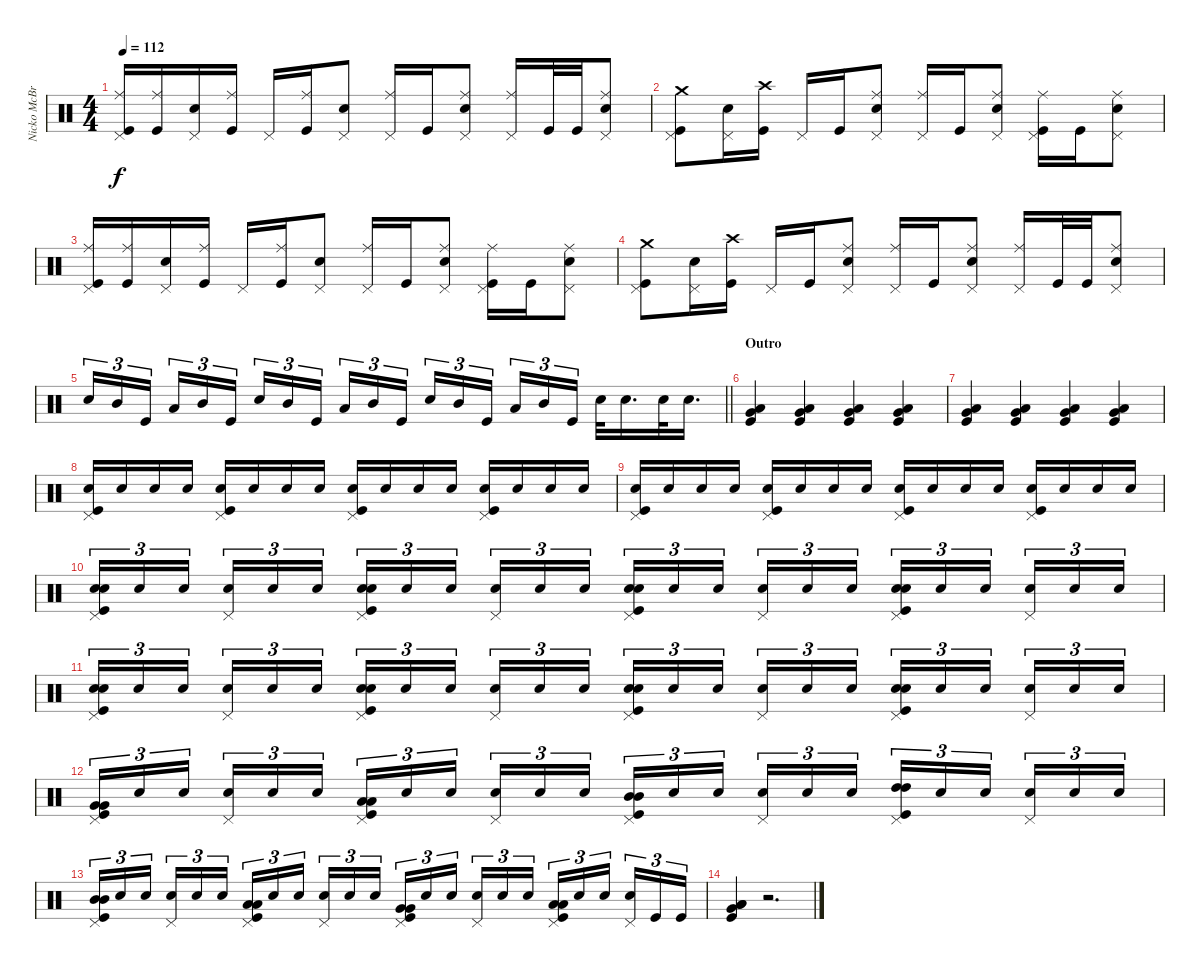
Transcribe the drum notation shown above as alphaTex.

\track ("Nicko McBrain" "Nicko McBr") {instrument percussion}
\staff {score}
\articulation defaults
\ts (4 4)
\tempo 112
\clef neutral
\ks c
("Ride (middle)" "Pedal Hi-Hat (hit)" "Kick (hit)").16{dy f} ("Ride (middle)" "Kick (hit)").16 ("Snare (hit) 2" "Pedal Hi-Hat (hit)").16 ("Ride (middle)" "Kick (hit)").16 "Pedal Hi-Hat (hit)".16 ("Ride (middle)" "Kick (hit)").16 ("Snare (hit) 2" "Pedal Hi-Hat (hit)").8 ("Ride (middle)" "Pedal Hi-Hat (hit)").16 "Kick (hit)".16 ("Ride (middle)" "Snare (hit) 2" "Pedal Hi-Hat (hit)").8 ("Ride (middle)" "Pedal Hi-Hat (hit)").16 "Kick (hit)".32 "Kick (hit)".32 ("Ride (middle)" "Snare (hit) 2" "Pedal Hi-Hat (hit)").8 |
("Crash medium (hit)" "Pedal Hi-Hat (hit)" "Kick (hit)").8 ("Snare (hit) 2" "Pedal Hi-Hat (hit)").16 ("Crash high (hit)" "Kick (hit)").16 "Pedal Hi-Hat (hit)".16 "Kick (hit)".16 ("Ride (middle)" "Snare (hit) 2" "Pedal Hi-Hat (hit)").8 ("Ride (middle)" "Pedal Hi-Hat (hit)").16 "Kick (hit)".16 ("Ride (middle)" "Snare (hit) 2" "Pedal Hi-Hat (hit)").8 ("Ride (middle)" "Pedal Hi-Hat (hit)" "Kick (hit)").16 "Kick (hit)".16 ("Ride (middle)" "Snare (hit) 2" "Pedal Hi-Hat (hit)").8 |
("Ride (middle)" "Pedal Hi-Hat (hit)" "Kick (hit)").16 ("Ride (middle)" "Kick (hit)").16 ("Snare (hit) 2" "Pedal Hi-Hat (hit)").16 ("Ride (middle)" "Kick (hit)").16 "Pedal Hi-Hat (hit)".16 ("Ride (middle)" "Kick (hit)").16 ("Snare (hit) 2" "Pedal Hi-Hat (hit)").8 ("Ride (middle)" "Pedal Hi-Hat (hit)").16 "Kick (hit)".16 ("Ride (middle)" "Snare (hit) 2" "Pedal Hi-Hat (hit)").8 ("Ride (middle)" "Pedal Hi-Hat (hit)" "Kick (hit)").16 "Kick (hit)".16 ("Ride (middle)" "Snare (hit) 2" "Pedal Hi-Hat (hit)").8 |
("Crash medium (hit)" "Pedal Hi-Hat (hit)" "Kick (hit)").8 ("Snare (hit) 2" "Pedal Hi-Hat (hit)").16 ("Crash high (hit)" "Kick (hit)").16 "Pedal Hi-Hat (hit)".16 "Kick (hit)".16 ("Ride (middle)" "Snare (hit) 2" "Pedal Hi-Hat (hit)").8 ("Ride (middle)" "Pedal Hi-Hat (hit)").16 "Kick (hit)".16 ("Ride (middle)" "Snare (hit) 2" "Pedal Hi-Hat (hit)").8 ("Ride (middle)" "Pedal Hi-Hat (hit)").16 "Kick (hit)".32 "Kick (hit)".32 ("Ride (middle)" "Snare (hit) 2" "Pedal Hi-Hat (hit)").8 |
\barLineRight lightlight "Snare (hit) 2".16{tu (3 2)} "Mid Tom (hit)".16{tu (3 2)} "Kick (hit)".16{tu (3 2) beam splitsecondary} "Low Tom (hit)".16{tu (3 2)} "Mid Tom (hit)".16{tu (3 2)} "Kick (hit)".16{tu (3 2)} "Snare (hit) 2".16{tu (3 2)} "Mid Tom (hit)".16{tu (3 2)} "Kick (hit)".16{tu (3 2) beam splitsecondary} "Low Tom (hit)".16{tu (3 2)} "Mid Tom (hit)".16{tu (3 2)} "Kick (hit)".16{tu (3 2)} "Snare (hit) 2".16{tu (3 2)} "Mid Tom (hit)".16{tu (3 2)} "Kick (hit)".16{tu (3 2) beam splitsecondary} "Low Tom (hit)".16{tu (3 2)} "Mid Tom (hit)".16{tu (3 2)} "Kick (hit)".16{tu (3 2)} "Snare (hit) 2".32 "Snare (hit) 2".16{d} "Snare (hit) 2".32 "Snare (hit) 2".16{d}
|
\section ("" "Outro")
("Very Low Tom (hit)" "Low Floor Tom (hit)" "Kick (hit)").4 ("Very Low Tom (hit)" "Low Floor Tom (hit)" "Kick (hit)").4 ("Very Low Tom (hit)" "Low Floor Tom (hit)" "Kick (hit)").4 ("Very Low Tom (hit)" "Low Floor Tom (hit)" "Kick (hit)").4 |
("Very Low Tom (hit)" "Low Floor Tom (hit)" "Kick (hit)").4 ("Very Low Tom (hit)" "Low Floor Tom (hit)" "Kick (hit)").4 ("Very Low Tom (hit)" "Low Floor Tom (hit)" "Kick (hit)").4 ("Very Low Tom (hit)" "Low Floor Tom (hit)" "Kick (hit)").4 |
("Snare (hit) 2" "Pedal Hi-Hat (hit)" "Kick (hit)").16 "Snare (hit) 2".16 "Snare (hit) 2".16 "Snare (hit) 2".16 ("Snare (hit) 2" "Pedal Hi-Hat (hit)" "Kick (hit)").16 "Snare (hit) 2".16 "Snare (hit) 2".16 "Snare (hit) 2".16 ("Snare (hit) 2" "Pedal Hi-Hat (hit)" "Kick (hit)").16 "Snare (hit) 2".16 "Snare (hit) 2".16 "Snare (hit) 2".16 ("Snare (hit) 2" "Pedal Hi-Hat (hit)" "Kick (hit)").16 "Snare (hit) 2".16 "Snare (hit) 2".16 "Snare (hit) 2".16 |
("Snare (hit) 2" "Pedal Hi-Hat (hit)" "Kick (hit)").16 "Snare (hit) 2".16 "Snare (hit) 2".16 "Snare (hit) 2".16 ("Snare (hit) 2" "Pedal Hi-Hat (hit)" "Kick (hit)").16 "Snare (hit) 2".16 "Snare (hit) 2".16 "Snare (hit) 2".16 ("Snare (hit) 2" "Pedal Hi-Hat (hit)" "Kick (hit)").16 "Snare (hit) 2".16 "Snare (hit) 2".16 "Snare (hit) 2".16 ("Snare (hit) 2" "Pedal Hi-Hat (hit)" "Kick (hit)").16 "Snare (hit) 2".16 "Snare (hit) 2".16 "Snare (hit) 2".16 |
("Snare (hit) 2" "Snare (hit) 2" "Pedal Hi-Hat (hit)" "Kick (hit)").16{tu (3 2)} "Snare (hit) 2".16{tu (3 2)} "Snare (hit) 2".16{tu (3 2) beam splitsecondary} ("Snare (hit) 2" "Pedal Hi-Hat (hit)").16{tu (3 2)} "Snare (hit) 2".16{tu (3 2)} "Snare (hit) 2".16{tu (3 2)} ("Snare (hit) 2" "Snare (hit) 2" "Pedal Hi-Hat (hit)" "Kick (hit)").16{tu (3 2)} "Snare (hit) 2".16{tu (3 2)} "Snare (hit) 2".16{tu (3 2) beam splitsecondary} ("Snare (hit) 2" "Pedal Hi-Hat (hit)").16{tu (3 2)} "Snare (hit) 2".16{tu (3 2)} "Snare (hit) 2".16{tu (3 2)} ("Snare (hit) 2" "Snare (hit) 2" "Pedal Hi-Hat (hit)" "Kick (hit)").16{tu (3 2)} "Snare (hit) 2".16{tu (3 2)} "Snare (hit) 2".16{tu (3 2) beam splitsecondary} ("Snare (hit) 2" "Pedal Hi-Hat (hit)").16{tu (3 2)} "Snare (hit) 2".16{tu (3 2)} "Snare (hit) 2".16{tu (3 2)} ("Snare (hit) 2" "Snare (hit) 2" "Pedal Hi-Hat (hit)" "Kick (hit)").16{tu (3 2)} "Snare (hit) 2".16{tu (3 2)} "Snare (hit) 2".16{tu (3 2) beam splitsecondary} ("Snare (hit) 2" "Pedal Hi-Hat (hit)").16{tu (3 2)} "Snare (hit) 2".16{tu (3 2)} "Snare (hit) 2".16{tu (3 2)} |
("Snare (hit) 2" "Snare (hit) 2" "Pedal Hi-Hat (hit)" "Kick (hit)").16{tu (3 2)} "Snare (hit) 2".16{tu (3 2)} "Snare (hit) 2".16{tu (3 2) beam splitsecondary} ("Snare (hit) 2" "Pedal Hi-Hat (hit)").16{tu (3 2)} "Snare (hit) 2".16{tu (3 2)} "Snare (hit) 2".16{tu (3 2)} ("Snare (hit) 2" "Snare (hit) 2" "Pedal Hi-Hat (hit)" "Kick (hit)").16{tu (3 2)} "Snare (hit) 2".16{tu (3 2)} "Snare (hit) 2".16{tu (3 2) beam splitsecondary} ("Snare (hit) 2" "Pedal Hi-Hat (hit)").16{tu (3 2)} "Snare (hit) 2".16{tu (3 2)} "Snare (hit) 2".16{tu (3 2)} ("Snare (hit) 2" "Snare (hit) 2" "Pedal Hi-Hat (hit)" "Kick (hit)").16{tu (3 2)} "Snare (hit) 2".16{tu (3 2)} "Snare (hit) 2".16{tu (3 2) beam splitsecondary} ("Snare (hit) 2" "Pedal Hi-Hat (hit)").16{tu (3 2)} "Snare (hit) 2".16{tu (3 2)} "Snare (hit) 2".16{tu (3 2)} ("Snare (hit) 2" "Snare (hit) 2" "Pedal Hi-Hat (hit)" "Kick (hit)").16{tu (3 2)} "Snare (hit) 2".16{tu (3 2)} "Snare (hit) 2".16{tu (3 2) beam splitsecondary} ("Snare (hit) 2" "Pedal Hi-Hat (hit)").16{tu (3 2)} "Snare (hit) 2".16{tu (3 2)} "Snare (hit) 2".16{tu (3 2)} |
("Very Low Tom (hit)" "Very Low Tom (hit)" "Pedal Hi-Hat (hit)" "Kick (hit)").16{tu (3 2)} "Snare (hit) 2".16{tu (3 2)} "Snare (hit) 2".16{tu (3 2) beam splitsecondary} ("Snare (hit) 2" "Pedal Hi-Hat (hit)").16{tu (3 2)} "Snare (hit) 2".16{tu (3 2)} "Snare (hit) 2".16{tu (3 2)} ("Low Tom (hit)" "Low Tom (hit)" "Pedal Hi-Hat (hit)" "Kick (hit)").16{tu (3 2)} "Snare (hit) 2".16{tu (3 2)} "Snare (hit) 2".16{tu (3 2) beam splitsecondary} ("Snare (hit) 2" "Pedal Hi-Hat (hit)").16{tu (3 2)} "Snare (hit) 2".16{tu (3 2)} "Snare (hit) 2".16{tu (3 2)} ("Mid Tom (hit)" "Mid Tom (hit)" "Pedal Hi-Hat (hit)" "Kick (hit)").16{tu (3 2)} "Snare (hit) 2".16{tu (3 2)} "Snare (hit) 2".16{tu (3 2) beam splitsecondary} ("Snare (hit) 2" "Pedal Hi-Hat (hit)").16{tu (3 2)} "Snare (hit) 2".16{tu (3 2)} "Snare (hit) 2".16{tu (3 2)} ("High Tom (hit)" "High Tom (hit)" "Pedal Hi-Hat (hit)" "Kick (hit)").16{tu (3 2)} "Snare (hit) 2".16{tu (3 2)} "Snare (hit) 2".16{tu (3 2) beam splitsecondary} ("Snare (hit) 2" "Pedal Hi-Hat (hit)").16{tu (3 2)} "Snare (hit) 2".16{tu (3 2)} "Snare (hit) 2".16{tu (3 2)} |
("Mid Tom (hit)" "Mid Tom (hit)" "Pedal Hi-Hat (hit)" "Kick (hit)").16{tu (3 2)} "Snare (hit) 2".16{tu (3 2)} "Snare (hit) 2".16{tu (3 2) beam splitsecondary} ("Snare (hit) 2" "Pedal Hi-Hat (hit)").16{tu (3 2)} "Snare (hit) 2".16{tu (3 2)} "Snare (hit) 2".16{tu (3 2)} ("Low Tom (hit)" "Low Tom (hit)" "Pedal Hi-Hat (hit)" "Kick (hit)").16{tu (3 2)} "Snare (hit) 2".16{tu (3 2)} "Snare (hit) 2".16{tu (3 2) beam splitsecondary} ("Snare (hit) 2" "Pedal Hi-Hat (hit)").16{tu (3 2)} "Snare (hit) 2".16{tu (3 2)} "Snare (hit) 2".16{tu (3 2)} ("Very Low Tom (hit)" "Very Low Tom (hit)" "Pedal Hi-Hat (hit)" "Kick (hit)").16{tu (3 2)} "Snare (hit) 2".16{tu (3 2)} "Snare (hit) 2".16{tu (3 2) beam splitsecondary} ("Snare (hit) 2" "Pedal Hi-Hat (hit)").16{tu (3 2)} "Snare (hit) 2".16{tu (3 2)} "Snare (hit) 2".16{tu (3 2)} ("Low Tom (hit)" "Low Tom (hit)" "Pedal Hi-Hat (hit)" "Kick (hit)").16{tu (3 2)} "Snare (hit) 2".16{tu (3 2)} "Snare (hit) 2".16{tu (3 2) beam splitsecondary} ("Snare (hit) 2" "Pedal Hi-Hat (hit)").16{tu (3 2)} "Kick (hit)".16{tu (3 2)} "Kick (hit)".16{tu (3 2)} |
("Low Tom (hit)" "Very Low Tom (hit)" "Low Floor Tom (hit)" "Kick (hit)").4 r.2{d}
